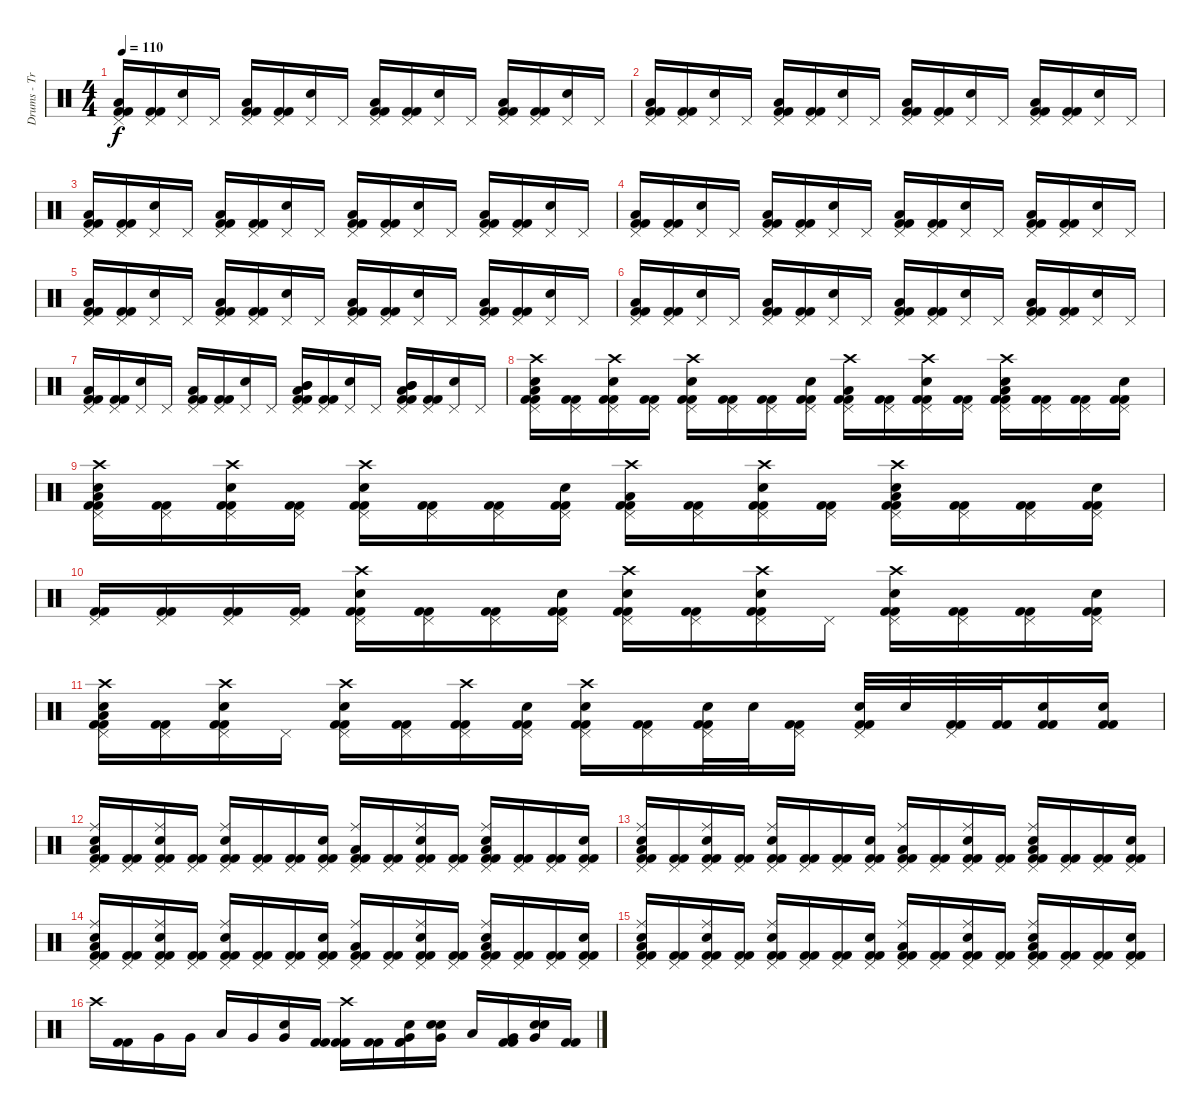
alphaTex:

\track ("Drums - Travis Barker" "Drums - Tr") {instrument percussion}
\staff {score}
\articulation defaults
\ts (4 4)
\tempo 110
\clef neutral
\ks c
("Pedal Hi-Hat (hit)" "Low Tom (hit)" "Kick (hit) 2" "Kick (hit) 2").16{dy f} ("Pedal Hi-Hat (hit)" "Kick (hit) 2" "Kick (hit) 2").16 ("Pedal Hi-Hat (hit)" "Electric Snare (hit)").16 "Pedal Hi-Hat (hit)".16 ("Pedal Hi-Hat (hit)" "Low Tom (hit)" "Kick (hit) 2" "Kick (hit) 2").16 ("Pedal Hi-Hat (hit)" "Kick (hit) 2" "Kick (hit) 2").16 ("Pedal Hi-Hat (hit)" "Electric Snare (hit)").16 "Pedal Hi-Hat (hit)".16 ("Pedal Hi-Hat (hit)" "Low Tom (hit)" "Kick (hit) 2" "Kick (hit) 2").16 ("Pedal Hi-Hat (hit)" "Kick (hit) 2" "Kick (hit) 2").16 ("Pedal Hi-Hat (hit)" "Electric Snare (hit)").16 "Pedal Hi-Hat (hit)".16 ("Pedal Hi-Hat (hit)" "Low Tom (hit)" "Kick (hit) 2" "Kick (hit) 2").16 ("Pedal Hi-Hat (hit)" "Kick (hit) 2" "Kick (hit) 2").16 ("Pedal Hi-Hat (hit)" "Electric Snare (hit)").16 "Pedal Hi-Hat (hit)".16 |
("Pedal Hi-Hat (hit)" "Low Tom (hit)" "Kick (hit) 2" "Kick (hit) 2").16 ("Pedal Hi-Hat (hit)" "Kick (hit) 2" "Kick (hit) 2").16 ("Pedal Hi-Hat (hit)" "Electric Snare (hit)").16 "Pedal Hi-Hat (hit)".16 ("Pedal Hi-Hat (hit)" "Low Tom (hit)" "Kick (hit) 2" "Kick (hit) 2").16 ("Pedal Hi-Hat (hit)" "Kick (hit) 2" "Kick (hit) 2").16 ("Pedal Hi-Hat (hit)" "Electric Snare (hit)").16 "Pedal Hi-Hat (hit)".16 ("Pedal Hi-Hat (hit)" "Low Tom (hit)" "Kick (hit) 2" "Kick (hit) 2").16 ("Pedal Hi-Hat (hit)" "Kick (hit) 2" "Kick (hit) 2").16 ("Pedal Hi-Hat (hit)" "Electric Snare (hit)").16 "Pedal Hi-Hat (hit)".16 ("Pedal Hi-Hat (hit)" "Low Tom (hit)" "Kick (hit) 2" "Kick (hit) 2").16 ("Pedal Hi-Hat (hit)" "Kick (hit) 2" "Kick (hit) 2").16 ("Pedal Hi-Hat (hit)" "Electric Snare (hit)").16 "Pedal Hi-Hat (hit)".16 |
("Pedal Hi-Hat (hit)" "Low Tom (hit)" "Kick (hit) 2" "Kick (hit) 2").16 ("Pedal Hi-Hat (hit)" "Kick (hit) 2" "Kick (hit) 2").16 ("Pedal Hi-Hat (hit)" "Electric Snare (hit)").16 "Pedal Hi-Hat (hit)".16 ("Pedal Hi-Hat (hit)" "Low Tom (hit)" "Kick (hit) 2" "Kick (hit) 2").16 ("Pedal Hi-Hat (hit)" "Kick (hit) 2" "Kick (hit) 2").16 ("Pedal Hi-Hat (hit)" "Electric Snare (hit)").16 "Pedal Hi-Hat (hit)".16 ("Pedal Hi-Hat (hit)" "Low Tom (hit)" "Kick (hit) 2" "Kick (hit) 2").16 ("Pedal Hi-Hat (hit)" "Kick (hit) 2" "Kick (hit) 2").16 ("Pedal Hi-Hat (hit)" "Electric Snare (hit)").16 "Pedal Hi-Hat (hit)".16 ("Pedal Hi-Hat (hit)" "Low Tom (hit)" "Kick (hit) 2" "Kick (hit) 2").16 ("Pedal Hi-Hat (hit)" "Kick (hit) 2" "Kick (hit) 2").16 ("Pedal Hi-Hat (hit)" "Electric Snare (hit)").16 "Pedal Hi-Hat (hit)".16 |
("Pedal Hi-Hat (hit)" "Low Tom (hit)" "Kick (hit) 2" "Kick (hit) 2").16 ("Pedal Hi-Hat (hit)" "Kick (hit) 2" "Kick (hit) 2").16 ("Pedal Hi-Hat (hit)" "Electric Snare (hit)").16 "Pedal Hi-Hat (hit)".16 ("Pedal Hi-Hat (hit)" "Low Tom (hit)" "Kick (hit) 2" "Kick (hit) 2").16 ("Pedal Hi-Hat (hit)" "Kick (hit) 2" "Kick (hit) 2").16 ("Pedal Hi-Hat (hit)" "Electric Snare (hit)").16 "Pedal Hi-Hat (hit)".16 ("Pedal Hi-Hat (hit)" "Low Tom (hit)" "Kick (hit) 2" "Kick (hit) 2").16 ("Pedal Hi-Hat (hit)" "Kick (hit) 2" "Kick (hit) 2").16 ("Pedal Hi-Hat (hit)" "Electric Snare (hit)").16 "Pedal Hi-Hat (hit)".16 ("Pedal Hi-Hat (hit)" "Low Tom (hit)" "Kick (hit) 2" "Kick (hit) 2").16 ("Pedal Hi-Hat (hit)" "Kick (hit) 2" "Kick (hit) 2").16 ("Pedal Hi-Hat (hit)" "Electric Snare (hit)").16 "Pedal Hi-Hat (hit)".16 |
("Pedal Hi-Hat (hit)" "Low Tom (hit)" "Kick (hit) 2" "Kick (hit) 2").16 ("Pedal Hi-Hat (hit)" "Kick (hit) 2" "Kick (hit) 2").16 ("Pedal Hi-Hat (hit)" "Electric Snare (hit)").16 "Pedal Hi-Hat (hit)".16 ("Pedal Hi-Hat (hit)" "Low Tom (hit)" "Kick (hit) 2" "Kick (hit) 2").16 ("Pedal Hi-Hat (hit)" "Kick (hit) 2" "Kick (hit) 2").16 ("Pedal Hi-Hat (hit)" "Electric Snare (hit)").16 "Pedal Hi-Hat (hit)".16 ("Pedal Hi-Hat (hit)" "Low Tom (hit)" "Kick (hit) 2" "Kick (hit) 2").16 ("Pedal Hi-Hat (hit)" "Kick (hit) 2" "Kick (hit) 2").16 ("Pedal Hi-Hat (hit)" "Electric Snare (hit)").16 "Pedal Hi-Hat (hit)".16 ("Pedal Hi-Hat (hit)" "Low Tom (hit)" "Kick (hit) 2" "Kick (hit) 2").16 ("Pedal Hi-Hat (hit)" "Kick (hit) 2" "Kick (hit) 2").16 ("Pedal Hi-Hat (hit)" "Electric Snare (hit)").16 "Pedal Hi-Hat (hit)".16 |
("Pedal Hi-Hat (hit)" "Low Tom (hit)" "Kick (hit) 2" "Kick (hit) 2").16 ("Pedal Hi-Hat (hit)" "Kick (hit) 2" "Kick (hit) 2").16 ("Pedal Hi-Hat (hit)" "Electric Snare (hit)").16 "Pedal Hi-Hat (hit)".16 ("Pedal Hi-Hat (hit)" "Low Tom (hit)" "Kick (hit) 2" "Kick (hit) 2").16 ("Pedal Hi-Hat (hit)" "Kick (hit) 2" "Kick (hit) 2").16 ("Pedal Hi-Hat (hit)" "Electric Snare (hit)").16 "Pedal Hi-Hat (hit)".16 ("Pedal Hi-Hat (hit)" "Low Tom (hit)" "Kick (hit) 2" "Kick (hit) 2").16 ("Pedal Hi-Hat (hit)" "Kick (hit) 2" "Kick (hit) 2").16 ("Pedal Hi-Hat (hit)" "Electric Snare (hit)").16 "Pedal Hi-Hat (hit)".16 ("Pedal Hi-Hat (hit)" "Low Tom (hit)" "Kick (hit) 2" "Kick (hit) 2").16 ("Pedal Hi-Hat (hit)" "Kick (hit) 2" "Kick (hit) 2").16 ("Pedal Hi-Hat (hit)" "Electric Snare (hit)").16 "Pedal Hi-Hat (hit)".16 |
("Pedal Hi-Hat (hit)" "Low Tom (hit)" "Kick (hit) 2" "Kick (hit) 2").16 ("Pedal Hi-Hat (hit)" "Kick (hit) 2" "Kick (hit) 2").16 ("Pedal Hi-Hat (hit)" "Electric Snare (hit)").16 "Pedal Hi-Hat (hit)".16 ("Pedal Hi-Hat (hit)" "Low Tom (hit)" "Kick (hit) 2" "Kick (hit) 2").16 ("Pedal Hi-Hat (hit)" "Kick (hit) 2" "Kick (hit) 2").16 ("Pedal Hi-Hat (hit)" "Electric Snare (hit)").16 "Pedal Hi-Hat (hit)".16 ("Pedal Hi-Hat (hit)" "Mid Tom (hit)" "Low Tom (hit)" "Mid Tom (hit)" "Kick (hit) 2" "Kick (hit) 2").16 ("Pedal Hi-Hat (hit)" "Kick (hit) 2" "Kick (hit) 2").16 ("Pedal Hi-Hat (hit)" "Electric Snare (hit)").16 "Pedal Hi-Hat (hit)".16 ("Pedal Hi-Hat (hit)" "Mid Tom (hit)" "Low Tom (hit)" "Mid Tom (hit)" "Kick (hit) 2" "Kick (hit) 2").16 ("Pedal Hi-Hat (hit)" "Kick (hit) 2" "Kick (hit) 2").16 ("Pedal Hi-Hat (hit)" "Electric Snare (hit)").16 "Pedal Hi-Hat (hit)".16 |
("Pedal Hi-Hat (hit)" "Crash high (hit)" "Low Tom (hit)" "Electric Snare (hit)" "Kick (hit) 2" "Kick (hit) 2").16 ("Pedal Hi-Hat (hit)" "Kick (hit) 2" "Kick (hit) 2").16 ("Pedal Hi-Hat (hit)" "Crash high (hit)" "Electric Snare (hit)" "Kick (hit) 2" "Kick (hit) 2").16 ("Pedal Hi-Hat (hit)" "Kick (hit) 2" "Kick (hit) 2").16 ("Pedal Hi-Hat (hit)" "Crash high (hit)" "Electric Snare (hit)" "Kick (hit) 2" "Kick (hit) 2").16 ("Pedal Hi-Hat (hit)" "Kick (hit) 2" "Kick (hit) 2").16 ("Pedal Hi-Hat (hit)" "Kick (hit) 2" "Kick (hit) 2").16 ("Pedal Hi-Hat (hit)" "Electric Snare (hit)" "Kick (hit) 2" "Kick (hit) 2").16 ("Pedal Hi-Hat (hit)" "Crash high (hit)" "Low Tom (hit)" "Kick (hit) 2" "Kick (hit) 2").16 ("Pedal Hi-Hat (hit)" "Kick (hit) 2" "Kick (hit) 2").16 ("Pedal Hi-Hat (hit)" "Crash high (hit)" "Electric Snare (hit)" "Kick (hit) 2" "Kick (hit) 2").16 ("Pedal Hi-Hat (hit)" "Kick (hit) 2" "Kick (hit) 2").16 ("Pedal Hi-Hat (hit)" "Crash high (hit)" "Low Tom (hit)" "Electric Snare (hit)" "Kick (hit) 2" "Kick (hit) 2").16 ("Pedal Hi-Hat (hit)" "Kick (hit) 2" "Kick (hit) 2").16 ("Pedal Hi-Hat (hit)" "Kick (hit) 2" "Kick (hit) 2").16 ("Pedal Hi-Hat (hit)" "Electric Snare (hit)" "Kick (hit) 2" "Kick (hit) 2").16 |
("Pedal Hi-Hat (hit)" "Crash high (hit)" "Low Tom (hit)" "Electric Snare (hit)" "Kick (hit) 2" "Kick (hit) 2").16 ("Pedal Hi-Hat (hit)" "Kick (hit) 2" "Kick (hit) 2").16 ("Pedal Hi-Hat (hit)" "Crash high (hit)" "Electric Snare (hit)" "Kick (hit) 2" "Kick (hit) 2").16 ("Pedal Hi-Hat (hit)" "Kick (hit) 2" "Kick (hit) 2").16 ("Pedal Hi-Hat (hit)" "Crash high (hit)" "Electric Snare (hit)" "Kick (hit) 2" "Kick (hit) 2").16 ("Pedal Hi-Hat (hit)" "Kick (hit) 2" "Kick (hit) 2").16 ("Pedal Hi-Hat (hit)" "Kick (hit) 2" "Kick (hit) 2").16 ("Pedal Hi-Hat (hit)" "Electric Snare (hit)" "Kick (hit) 2" "Kick (hit) 2").16 ("Pedal Hi-Hat (hit)" "Crash high (hit)" "Low Tom (hit)" "Kick (hit) 2" "Kick (hit) 2").16 ("Pedal Hi-Hat (hit)" "Kick (hit) 2" "Kick (hit) 2").16 ("Pedal Hi-Hat (hit)" "Crash high (hit)" "Electric Snare (hit)" "Kick (hit) 2" "Kick (hit) 2").16 ("Pedal Hi-Hat (hit)" "Kick (hit) 2" "Kick (hit) 2").16 ("Pedal Hi-Hat (hit)" "Crash high (hit)" "Low Tom (hit)" "Electric Snare (hit)" "Kick (hit) 2" "Kick (hit) 2").16 ("Pedal Hi-Hat (hit)" "Kick (hit) 2" "Kick (hit) 2").16 ("Pedal Hi-Hat (hit)" "Kick (hit) 2" "Kick (hit) 2").16 ("Pedal Hi-Hat (hit)" "Electric Snare (hit)" "Kick (hit) 2" "Kick (hit) 2").16 |
("Pedal Hi-Hat (hit)" "Kick (hit) 2" "Kick (hit) 2").16 ("Pedal Hi-Hat (hit)" "Kick (hit) 2" "Kick (hit) 2").16 ("Pedal Hi-Hat (hit)" "Kick (hit) 2" "Kick (hit) 2").16 ("Pedal Hi-Hat (hit)" "Kick (hit) 2" "Kick (hit) 2").16 ("Pedal Hi-Hat (hit)" "Crash high (hit)" "Electric Snare (hit)" "Kick (hit) 2" "Kick (hit) 2").16 ("Pedal Hi-Hat (hit)" "Kick (hit) 2" "Kick (hit) 2").16 ("Pedal Hi-Hat (hit)" "Kick (hit) 2" "Kick (hit) 2").16 ("Pedal Hi-Hat (hit)" "Electric Snare (hit)" "Kick (hit) 2" "Kick (hit) 2").16 ("Pedal Hi-Hat (hit)" "Crash high (hit)" "Electric Snare (hit)" "Kick (hit) 2" "Kick (hit) 2").16 ("Pedal Hi-Hat (hit)" "Kick (hit) 2" "Kick (hit) 2").16 ("Pedal Hi-Hat (hit)" "Crash high (hit)" "Electric Snare (hit)" "Kick (hit) 2" "Kick (hit) 2").16 "Pedal Hi-Hat (hit)".16 ("Pedal Hi-Hat (hit)" "Crash high (hit)" "Electric Snare (hit)" "Kick (hit) 2" "Kick (hit) 2").16 ("Pedal Hi-Hat (hit)" "Kick (hit) 2" "Kick (hit) 2").16 ("Pedal Hi-Hat (hit)" "Kick (hit) 2" "Kick (hit) 2").16 ("Pedal Hi-Hat (hit)" "Electric Snare (hit)" "Kick (hit) 2" "Kick (hit) 2").16 |
("Pedal Hi-Hat (hit)" "Crash high (hit)" "Low Tom (hit)" "Electric Snare (hit)" "Kick (hit) 2" "Kick (hit) 2").16 ("Pedal Hi-Hat (hit)" "Kick (hit) 2" "Kick (hit) 2").16 ("Pedal Hi-Hat (hit)" "Crash high (hit)" "Electric Snare (hit)" "Kick (hit) 2" "Kick (hit) 2").16 "Pedal Hi-Hat (hit)".16 ("Pedal Hi-Hat (hit)" "Crash high (hit)" "Electric Snare (hit)" "Kick (hit) 2" "Kick (hit) 2").16 ("Pedal Hi-Hat (hit)" "Kick (hit) 2" "Kick (hit) 2").16 ("Pedal Hi-Hat (hit)" "Crash high (hit)" "Kick (hit) 2" "Kick (hit) 2").16 ("Pedal Hi-Hat (hit)" "Electric Snare (hit)" "Kick (hit) 2" "Kick (hit) 2").16 ("Pedal Hi-Hat (hit)" "Crash high (hit)" "Electric Snare (hit)" "Kick (hit) 2" "Kick (hit) 2").16 ("Pedal Hi-Hat (hit)" "Kick (hit) 2" "Kick (hit) 2").16 ("Pedal Hi-Hat (hit)" "Electric Snare (hit)" "Kick (hit) 2" "Kick (hit) 2").32 "Electric Snare (hit)".32 ("Pedal Hi-Hat (hit)" "Kick (hit) 2" "Kick (hit) 2").16 ("Pedal Hi-Hat (hit)" "Electric Snare (hit)" "Kick (hit) 2" "Kick (hit) 2").32 "Electric Snare (hit)".32 ("Pedal Hi-Hat (hit)" "Kick (hit) 2" "Kick (hit) 2").32 ("Kick (hit) 2" "Kick (hit) 2").32 ("Electric Snare (hit)" "Kick (hit) 2" "Kick (hit) 2").16 ("Electric Snare (hit)" "Kick (hit) 2" "Kick (hit) 2").16 |
("Pedal Hi-Hat (hit)" "Ride (middle)" "Low Tom (hit)" "Electric Snare (hit)" "Kick (hit) 2" "Kick (hit) 2").16 ("Pedal Hi-Hat (hit)" "Kick (hit) 2" "Kick (hit) 2").16 ("Pedal Hi-Hat (hit)" "Ride (middle)" "Electric Snare (hit)" "Kick (hit) 2" "Kick (hit) 2").16 ("Pedal Hi-Hat (hit)" "Kick (hit) 2" "Kick (hit) 2").16 ("Pedal Hi-Hat (hit)" "Ride (middle)" "Electric Snare (hit)" "Kick (hit) 2" "Kick (hit) 2").16 ("Pedal Hi-Hat (hit)" "Kick (hit) 2" "Kick (hit) 2").16 ("Pedal Hi-Hat (hit)" "Kick (hit) 2" "Kick (hit) 2").16 ("Pedal Hi-Hat (hit)" "Electric Snare (hit)" "Kick (hit) 2" "Kick (hit) 2").16 ("Pedal Hi-Hat (hit)" "Ride (middle)" "Low Tom (hit)" "Kick (hit) 2" "Kick (hit) 2").16 ("Pedal Hi-Hat (hit)" "Kick (hit) 2" "Kick (hit) 2").16 ("Pedal Hi-Hat (hit)" "Ride (middle)" "Electric Snare (hit)" "Kick (hit) 2" "Kick (hit) 2").16 ("Pedal Hi-Hat (hit)" "Kick (hit) 2" "Kick (hit) 2").16 ("Pedal Hi-Hat (hit)" "Ride (middle)" "Low Tom (hit)" "Electric Snare (hit)" "Kick (hit) 2" "Kick (hit) 2").16 ("Pedal Hi-Hat (hit)" "Kick (hit) 2" "Kick (hit) 2").16 ("Pedal Hi-Hat (hit)" "Kick (hit) 2" "Kick (hit) 2").16 ("Pedal Hi-Hat (hit)" "Electric Snare (hit)" "Kick (hit) 2" "Kick (hit) 2").16 |
("Pedal Hi-Hat (hit)" "Ride (middle)" "Low Tom (hit)" "Electric Snare (hit)" "Kick (hit) 2" "Kick (hit) 2").16 ("Pedal Hi-Hat (hit)" "Kick (hit) 2" "Kick (hit) 2").16 ("Pedal Hi-Hat (hit)" "Ride (middle)" "Electric Snare (hit)" "Kick (hit) 2" "Kick (hit) 2").16 ("Pedal Hi-Hat (hit)" "Kick (hit) 2" "Kick (hit) 2").16 ("Pedal Hi-Hat (hit)" "Ride (middle)" "Electric Snare (hit)" "Kick (hit) 2" "Kick (hit) 2").16 ("Pedal Hi-Hat (hit)" "Kick (hit) 2" "Kick (hit) 2").16 ("Pedal Hi-Hat (hit)" "Kick (hit) 2" "Kick (hit) 2").16 ("Pedal Hi-Hat (hit)" "Electric Snare (hit)" "Kick (hit) 2" "Kick (hit) 2").16 ("Pedal Hi-Hat (hit)" "Ride (middle)" "Low Tom (hit)" "Kick (hit) 2" "Kick (hit) 2").16 ("Pedal Hi-Hat (hit)" "Kick (hit) 2" "Kick (hit) 2").16 ("Pedal Hi-Hat (hit)" "Ride (middle)" "Electric Snare (hit)" "Kick (hit) 2" "Kick (hit) 2").16 ("Pedal Hi-Hat (hit)" "Kick (hit) 2" "Kick (hit) 2").16 ("Pedal Hi-Hat (hit)" "Ride (middle)" "Low Tom (hit)" "Electric Snare (hit)" "Kick (hit) 2" "Kick (hit) 2").16 ("Pedal Hi-Hat (hit)" "Kick (hit) 2" "Kick (hit) 2").16 ("Pedal Hi-Hat (hit)" "Kick (hit) 2" "Kick (hit) 2").16 ("Pedal Hi-Hat (hit)" "Electric Snare (hit)" "Kick (hit) 2" "Kick (hit) 2").16 |
("Pedal Hi-Hat (hit)" "Ride (middle)" "Low Tom (hit)" "Electric Snare (hit)" "Kick (hit) 2" "Kick (hit) 2").16 ("Pedal Hi-Hat (hit)" "Kick (hit) 2" "Kick (hit) 2").16 ("Pedal Hi-Hat (hit)" "Ride (middle)" "Electric Snare (hit)" "Kick (hit) 2" "Kick (hit) 2").16 ("Pedal Hi-Hat (hit)" "Kick (hit) 2" "Kick (hit) 2").16 ("Pedal Hi-Hat (hit)" "Ride (middle)" "Electric Snare (hit)" "Kick (hit) 2" "Kick (hit) 2").16 ("Pedal Hi-Hat (hit)" "Kick (hit) 2" "Kick (hit) 2").16 ("Pedal Hi-Hat (hit)" "Kick (hit) 2" "Kick (hit) 2").16 ("Pedal Hi-Hat (hit)" "Electric Snare (hit)" "Kick (hit) 2" "Kick (hit) 2").16 ("Pedal Hi-Hat (hit)" "Ride (middle)" "Low Tom (hit)" "Kick (hit) 2" "Kick (hit) 2").16 ("Pedal Hi-Hat (hit)" "Kick (hit) 2" "Kick (hit) 2").16 ("Pedal Hi-Hat (hit)" "Ride (middle)" "Electric Snare (hit)" "Kick (hit) 2" "Kick (hit) 2").16 ("Pedal Hi-Hat (hit)" "Kick (hit) 2" "Kick (hit) 2").16 ("Pedal Hi-Hat (hit)" "Ride (middle)" "Low Tom (hit)" "Electric Snare (hit)" "Kick (hit) 2" "Kick (hit) 2").16 ("Pedal Hi-Hat (hit)" "Kick (hit) 2" "Kick (hit) 2").16 ("Pedal Hi-Hat (hit)" "Kick (hit) 2" "Kick (hit) 2").16 ("Pedal Hi-Hat (hit)" "Electric Snare (hit)" "Kick (hit) 2" "Kick (hit) 2").16 |
("Pedal Hi-Hat (hit)" "Ride (middle)" "Low Tom (hit)" "Electric Snare (hit)" "Kick (hit) 2" "Kick (hit) 2").16 ("Pedal Hi-Hat (hit)" "Kick (hit) 2" "Kick (hit) 2").16 ("Pedal Hi-Hat (hit)" "Ride (middle)" "Electric Snare (hit)" "Kick (hit) 2" "Kick (hit) 2").16 ("Pedal Hi-Hat (hit)" "Kick (hit) 2" "Kick (hit) 2").16 ("Pedal Hi-Hat (hit)" "Ride (middle)" "Electric Snare (hit)" "Kick (hit) 2" "Kick (hit) 2").16 ("Pedal Hi-Hat (hit)" "Kick (hit) 2" "Kick (hit) 2").16 ("Pedal Hi-Hat (hit)" "Kick (hit) 2" "Kick (hit) 2").16 ("Pedal Hi-Hat (hit)" "Electric Snare (hit)" "Kick (hit) 2" "Kick (hit) 2").16 ("Pedal Hi-Hat (hit)" "Ride (middle)" "Low Tom (hit)" "Kick (hit) 2" "Kick (hit) 2").16 ("Pedal Hi-Hat (hit)" "Kick (hit) 2" "Kick (hit) 2").16 ("Pedal Hi-Hat (hit)" "Ride (middle)" "Electric Snare (hit)" "Kick (hit) 2" "Kick (hit) 2").16 ("Pedal Hi-Hat (hit)" "Kick (hit) 2" "Kick (hit) 2").16 ("Pedal Hi-Hat (hit)" "Ride (middle)" "Low Tom (hit)" "Electric Snare (hit)" "Kick (hit) 2" "Kick (hit) 2").16 ("Pedal Hi-Hat (hit)" "Kick (hit) 2" "Kick (hit) 2").16 ("Pedal Hi-Hat (hit)" "Kick (hit) 2" "Kick (hit) 2").16 ("Pedal Hi-Hat (hit)" "Electric Snare (hit)" "Kick (hit) 2" "Kick (hit) 2").16 |
"Crash high (hit)".16 ("Kick (hit) 2" "Kick (hit) 2").16 "Very Low Tom (hit)".16 "Very Low Tom (hit)".16 "Low Tom (hit)".16 "Very Low Tom (hit)".16 ("Very Low Tom (hit)" "Electric Snare (hit)").16 ("Kick (hit) 2" "Kick (hit) 2").16 ("Crash high (hit)" "Kick (hit) 2" "Kick (hit) 2").16 ("Kick (hit) 2" "Kick (hit) 2").16 ("Very Low Tom (hit)" "Electric Snare (hit)" "Kick (hit) 2" "Kick (hit) 2").16 ("Very Low Tom (hit)" "Electric Snare (hit)" "Electric Snare (hit)").16 "Low Tom (hit)".16 ("Very Low Tom (hit)" "Kick (hit) 2" "Kick (hit) 2").16 ("Very Low Tom (hit)" "Electric Snare (hit)" "Electric Snare (hit)").16 ("Kick (hit) 2" "Kick (hit) 2").16
